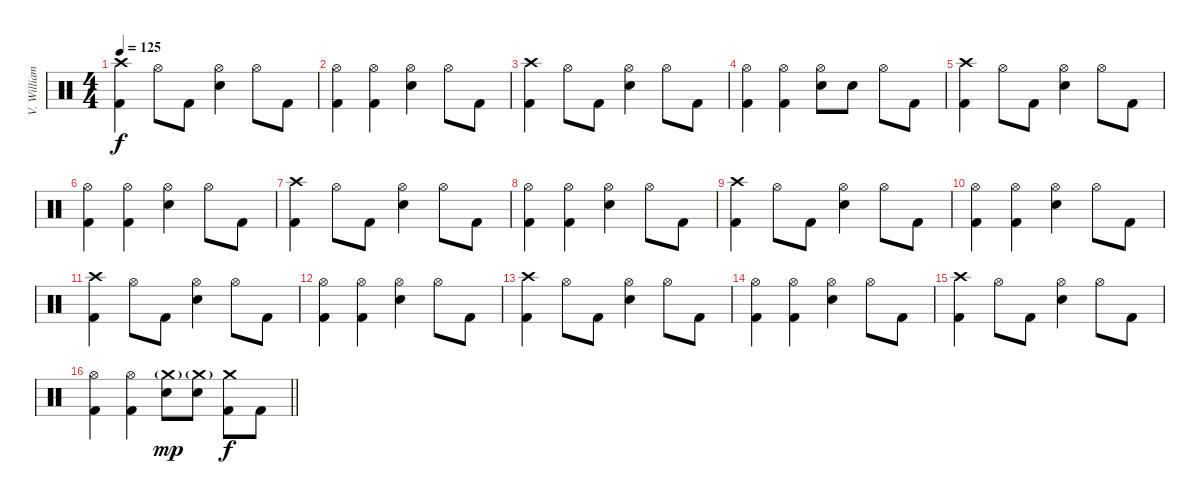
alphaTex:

\track ("V. Williams (Drums)" "V. William") {instrument percussion}
\staff {score}
\articulation defaults
\ts (4 4)
\tempo 125
\clef neutral
\ks c
("Crash high (hit)" "Kick (hit) 2").4{dy f} "Hi-Hat (open)".8 "Kick (hit) 2".8 ("Hi-Hat (open)" "Electric Snare (hit)").4 "Hi-Hat (open)".8 "Kick (hit) 2".8 |
("Hi-Hat (open)" "Kick (hit) 2").4 ("Hi-Hat (open)" "Kick (hit) 2").4 ("Hi-Hat (open)" "Electric Snare (hit)").4 "Hi-Hat (open)".8 "Kick (hit) 2".8 |
("Crash high (hit)" "Kick (hit) 2").4 "Hi-Hat (open)".8 "Kick (hit) 2".8 ("Hi-Hat (open)" "Electric Snare (hit)").4 "Hi-Hat (open)".8 "Kick (hit) 2".8 |
("Hi-Hat (open)" "Kick (hit) 2").4 ("Hi-Hat (open)" "Kick (hit) 2").4 ("Hi-Hat (open)" "Electric Snare (hit)").8 "Electric Snare (hit)".8 "Hi-Hat (open)".8 "Kick (hit) 2".8 |
("Crash high (hit)" "Kick (hit) 2").4 "Hi-Hat (open)".8 "Kick (hit) 2".8 ("Hi-Hat (open)" "Electric Snare (hit)").4 "Hi-Hat (open)".8 "Kick (hit) 2".8 |
("Hi-Hat (open)" "Kick (hit) 2").4 ("Hi-Hat (open)" "Kick (hit) 2").4 ("Hi-Hat (open)" "Electric Snare (hit)").4 "Hi-Hat (open)".8 "Kick (hit) 2".8 |
("Crash high (hit)" "Kick (hit) 2").4 "Hi-Hat (open)".8 "Kick (hit) 2".8 ("Hi-Hat (open)" "Electric Snare (hit)").4 "Hi-Hat (open)".8 "Kick (hit) 2".8 |
("Hi-Hat (open)" "Kick (hit) 2").4 ("Hi-Hat (open)" "Kick (hit) 2").4 ("Hi-Hat (open)" "Electric Snare (hit)").4 "Hi-Hat (open)".8 "Kick (hit) 2".8 |
("Crash high (hit)" "Kick (hit) 2").4 "Hi-Hat (open)".8 "Kick (hit) 2".8 ("Hi-Hat (open)" "Electric Snare (hit)").4 "Hi-Hat (open)".8 "Kick (hit) 2".8 |
("Hi-Hat (open)" "Kick (hit) 2").4 ("Hi-Hat (open)" "Kick (hit) 2").4 ("Hi-Hat (open)" "Electric Snare (hit)").4 "Hi-Hat (open)".8 "Kick (hit) 2".8 |
("Crash high (hit)" "Kick (hit) 2").4 "Hi-Hat (open)".8 "Kick (hit) 2".8 ("Hi-Hat (open)" "Electric Snare (hit)").4 "Hi-Hat (open)".8 "Kick (hit) 2".8 |
("Hi-Hat (open)" "Kick (hit) 2").4 ("Hi-Hat (open)" "Kick (hit) 2").4 ("Hi-Hat (open)" "Electric Snare (hit)").4 "Hi-Hat (open)".8 "Kick (hit) 2".8 |
("Crash high (hit)" "Kick (hit) 2").4 "Hi-Hat (open)".8 "Kick (hit) 2".8 ("Hi-Hat (open)" "Electric Snare (hit)").4 "Hi-Hat (open)".8 "Kick (hit) 2".8 |
("Hi-Hat (open)" "Kick (hit) 2").4 ("Hi-Hat (open)" "Kick (hit) 2").4 ("Hi-Hat (open)" "Electric Snare (hit)").4 "Hi-Hat (open)".8 "Kick (hit) 2".8 |
("Crash high (hit)" "Kick (hit) 2").4 "Hi-Hat (open)".8 "Kick (hit) 2".8 ("Hi-Hat (open)" "Electric Snare (hit)").4 "Hi-Hat (open)".8 "Kick (hit) 2".8 |
\barLineRight lightlight
("Hi-Hat (open)" "Kick (hit) 2").4 ("Hi-Hat (open)" "Kick (hit) 2").4 ("Crash medium (hit)"{g} "Electric Snare (hit)").8{dy mp} ("Crash medium (hit)"{g} "Electric Snare (hit)").8 ("Crash medium (hit)" "Kick (hit) 2").8{dy f} "Kick (hit) 2".8
